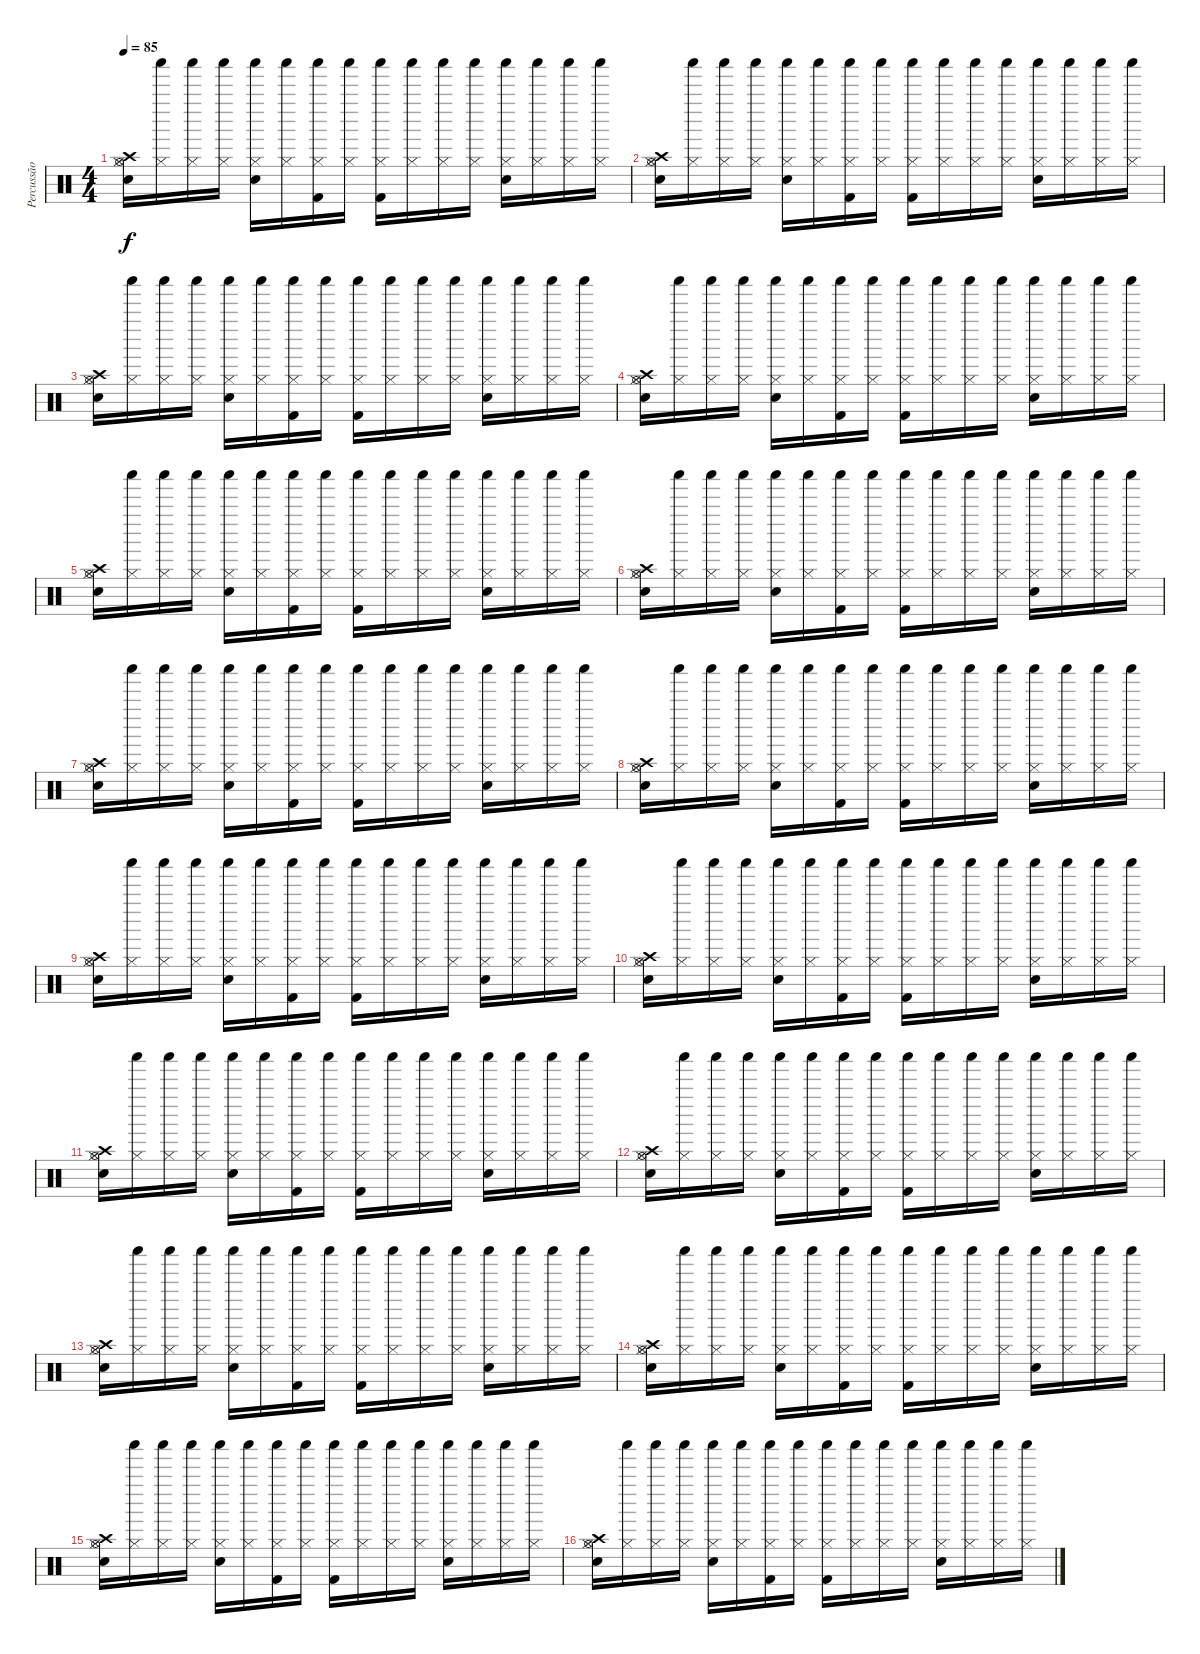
\track ("Percussão" "Percussão") {instrument percussion}
\staff {score}
\articulation defaults
\ts (4 4)
\tempo 85
\clef neutral
\ks c
("Hi-Hat (open)" "Crash high (hit)" "Hi-Hat (closed)" "Snare (hit) 2").16{dy f} ("Shaker (hit)" "Hi-Hat (closed)").16 ("Shaker (hit)" "Hi-Hat (closed)").16 ("Shaker (hit)" "Hi-Hat (closed)").16 ("Shaker (hit)" "Hi-Hat (closed)" "Snare (hit) 2").16 ("Shaker (hit)" "Hi-Hat (closed)").16 ("Shaker (hit)" "Hi-Hat (closed)" "Kick (hit) 2").16 ("Shaker (hit)" "Hi-Hat (closed)").16 ("Shaker (hit)" "Hi-Hat (closed)" "Kick (hit) 2").16 ("Shaker (hit)" "Hi-Hat (closed)").16 ("Shaker (hit)" "Hi-Hat (closed)").16 ("Shaker (hit)" "Hi-Hat (closed)").16 ("Shaker (hit)" "Hi-Hat (closed)" "Snare (hit) 2").16 ("Shaker (hit)" "Hi-Hat (closed)").16 ("Shaker (hit)" "Hi-Hat (closed)").16 ("Shaker (hit)" "Hi-Hat (closed)").16 |
("Hi-Hat (open)" "Crash high (hit)" "Hi-Hat (closed)" "Snare (hit) 2").16 ("Shaker (hit)" "Hi-Hat (closed)").16 ("Shaker (hit)" "Hi-Hat (closed)").16 ("Shaker (hit)" "Hi-Hat (closed)").16 ("Shaker (hit)" "Hi-Hat (closed)" "Snare (hit) 2").16 ("Shaker (hit)" "Hi-Hat (closed)").16 ("Shaker (hit)" "Hi-Hat (closed)" "Kick (hit) 2").16 ("Shaker (hit)" "Hi-Hat (closed)").16 ("Shaker (hit)" "Hi-Hat (closed)" "Kick (hit) 2").16 ("Shaker (hit)" "Hi-Hat (closed)").16 ("Shaker (hit)" "Hi-Hat (closed)").16 ("Shaker (hit)" "Hi-Hat (closed)").16 ("Shaker (hit)" "Hi-Hat (closed)" "Snare (hit) 2").16 ("Shaker (hit)" "Hi-Hat (closed)").16 ("Shaker (hit)" "Hi-Hat (closed)").16 ("Shaker (hit)" "Hi-Hat (closed)").16 |
("Hi-Hat (open)" "Crash high (hit)" "Hi-Hat (closed)" "Snare (hit) 2").16 ("Shaker (hit)" "Hi-Hat (closed)").16 ("Shaker (hit)" "Hi-Hat (closed)").16 ("Shaker (hit)" "Hi-Hat (closed)").16 ("Shaker (hit)" "Hi-Hat (closed)" "Snare (hit) 2").16 ("Shaker (hit)" "Hi-Hat (closed)").16 ("Shaker (hit)" "Hi-Hat (closed)" "Kick (hit) 2").16 ("Shaker (hit)" "Hi-Hat (closed)").16 ("Shaker (hit)" "Hi-Hat (closed)" "Kick (hit) 2").16 ("Shaker (hit)" "Hi-Hat (closed)").16 ("Shaker (hit)" "Hi-Hat (closed)").16 ("Shaker (hit)" "Hi-Hat (closed)").16 ("Shaker (hit)" "Hi-Hat (closed)" "Snare (hit) 2").16 ("Shaker (hit)" "Hi-Hat (closed)").16 ("Shaker (hit)" "Hi-Hat (closed)").16 ("Shaker (hit)" "Hi-Hat (closed)").16 |
("Hi-Hat (open)" "Crash high (hit)" "Hi-Hat (closed)" "Snare (hit) 2").16 ("Shaker (hit)" "Hi-Hat (closed)").16 ("Shaker (hit)" "Hi-Hat (closed)").16 ("Shaker (hit)" "Hi-Hat (closed)").16 ("Shaker (hit)" "Hi-Hat (closed)" "Snare (hit) 2").16 ("Shaker (hit)" "Hi-Hat (closed)").16 ("Shaker (hit)" "Hi-Hat (closed)" "Kick (hit) 2").16 ("Shaker (hit)" "Hi-Hat (closed)").16 ("Shaker (hit)" "Hi-Hat (closed)" "Kick (hit) 2").16 ("Shaker (hit)" "Hi-Hat (closed)").16 ("Shaker (hit)" "Hi-Hat (closed)").16 ("Shaker (hit)" "Hi-Hat (closed)").16 ("Shaker (hit)" "Hi-Hat (closed)" "Snare (hit) 2").16 ("Shaker (hit)" "Hi-Hat (closed)").16 ("Shaker (hit)" "Hi-Hat (closed)").16 ("Shaker (hit)" "Hi-Hat (closed)").16 |
("Hi-Hat (open)" "Crash high (hit)" "Hi-Hat (closed)" "Snare (hit) 2").16 ("Shaker (hit)" "Hi-Hat (closed)").16 ("Shaker (hit)" "Hi-Hat (closed)").16 ("Shaker (hit)" "Hi-Hat (closed)").16 ("Shaker (hit)" "Hi-Hat (closed)" "Snare (hit) 2").16 ("Shaker (hit)" "Hi-Hat (closed)").16 ("Shaker (hit)" "Hi-Hat (closed)" "Kick (hit) 2").16 ("Shaker (hit)" "Hi-Hat (closed)").16 ("Shaker (hit)" "Hi-Hat (closed)" "Kick (hit) 2").16 ("Shaker (hit)" "Hi-Hat (closed)").16 ("Shaker (hit)" "Hi-Hat (closed)").16 ("Shaker (hit)" "Hi-Hat (closed)").16 ("Shaker (hit)" "Hi-Hat (closed)" "Snare (hit) 2").16 ("Shaker (hit)" "Hi-Hat (closed)").16 ("Shaker (hit)" "Hi-Hat (closed)").16 ("Shaker (hit)" "Hi-Hat (closed)").16 |
("Hi-Hat (open)" "Crash high (hit)" "Hi-Hat (closed)" "Snare (hit) 2").16 ("Shaker (hit)" "Hi-Hat (closed)").16 ("Shaker (hit)" "Hi-Hat (closed)").16 ("Shaker (hit)" "Hi-Hat (closed)").16 ("Shaker (hit)" "Hi-Hat (closed)" "Snare (hit) 2").16 ("Shaker (hit)" "Hi-Hat (closed)").16 ("Shaker (hit)" "Hi-Hat (closed)" "Kick (hit) 2").16 ("Shaker (hit)" "Hi-Hat (closed)").16 ("Shaker (hit)" "Hi-Hat (closed)" "Kick (hit) 2").16 ("Shaker (hit)" "Hi-Hat (closed)").16 ("Shaker (hit)" "Hi-Hat (closed)").16 ("Shaker (hit)" "Hi-Hat (closed)").16 ("Shaker (hit)" "Hi-Hat (closed)" "Snare (hit) 2").16 ("Shaker (hit)" "Hi-Hat (closed)").16 ("Shaker (hit)" "Hi-Hat (closed)").16 ("Shaker (hit)" "Hi-Hat (closed)").16 |
("Hi-Hat (open)" "Crash high (hit)" "Hi-Hat (closed)" "Snare (hit) 2").16 ("Shaker (hit)" "Hi-Hat (closed)").16 ("Shaker (hit)" "Hi-Hat (closed)").16 ("Shaker (hit)" "Hi-Hat (closed)").16 ("Shaker (hit)" "Hi-Hat (closed)" "Snare (hit) 2").16 ("Shaker (hit)" "Hi-Hat (closed)").16 ("Shaker (hit)" "Hi-Hat (closed)" "Kick (hit) 2").16 ("Shaker (hit)" "Hi-Hat (closed)").16 ("Shaker (hit)" "Hi-Hat (closed)" "Kick (hit) 2").16 ("Shaker (hit)" "Hi-Hat (closed)").16 ("Shaker (hit)" "Hi-Hat (closed)").16 ("Shaker (hit)" "Hi-Hat (closed)").16 ("Shaker (hit)" "Hi-Hat (closed)" "Snare (hit) 2").16 ("Shaker (hit)" "Hi-Hat (closed)").16 ("Shaker (hit)" "Hi-Hat (closed)").16 ("Shaker (hit)" "Hi-Hat (closed)").16 |
("Hi-Hat (open)" "Crash high (hit)" "Hi-Hat (closed)" "Snare (hit) 2").16 ("Shaker (hit)" "Hi-Hat (closed)").16 ("Shaker (hit)" "Hi-Hat (closed)").16 ("Shaker (hit)" "Hi-Hat (closed)").16 ("Shaker (hit)" "Hi-Hat (closed)" "Snare (hit) 2").16 ("Shaker (hit)" "Hi-Hat (closed)").16 ("Shaker (hit)" "Hi-Hat (closed)" "Kick (hit) 2").16 ("Shaker (hit)" "Hi-Hat (closed)").16 ("Shaker (hit)" "Hi-Hat (closed)" "Kick (hit) 2").16 ("Shaker (hit)" "Hi-Hat (closed)").16 ("Shaker (hit)" "Hi-Hat (closed)").16 ("Shaker (hit)" "Hi-Hat (closed)").16 ("Shaker (hit)" "Hi-Hat (closed)" "Snare (hit) 2").16 ("Shaker (hit)" "Hi-Hat (closed)").16 ("Shaker (hit)" "Hi-Hat (closed)").16 ("Shaker (hit)" "Hi-Hat (closed)").16 |
("Hi-Hat (open)" "Crash high (hit)" "Hi-Hat (closed)" "Snare (hit) 2").16 ("Shaker (hit)" "Hi-Hat (closed)").16 ("Shaker (hit)" "Hi-Hat (closed)").16 ("Shaker (hit)" "Hi-Hat (closed)").16 ("Shaker (hit)" "Hi-Hat (closed)" "Snare (hit) 2").16 ("Shaker (hit)" "Hi-Hat (closed)").16 ("Shaker (hit)" "Hi-Hat (closed)" "Kick (hit) 2").16 ("Shaker (hit)" "Hi-Hat (closed)").16 ("Shaker (hit)" "Hi-Hat (closed)" "Kick (hit) 2").16 ("Shaker (hit)" "Hi-Hat (closed)").16 ("Shaker (hit)" "Hi-Hat (closed)").16 ("Shaker (hit)" "Hi-Hat (closed)").16 ("Shaker (hit)" "Hi-Hat (closed)" "Snare (hit) 2").16 ("Shaker (hit)" "Hi-Hat (closed)").16 ("Shaker (hit)" "Hi-Hat (closed)").16 ("Shaker (hit)" "Hi-Hat (closed)").16 |
("Hi-Hat (open)" "Crash high (hit)" "Hi-Hat (closed)" "Snare (hit) 2").16 ("Shaker (hit)" "Hi-Hat (closed)").16 ("Shaker (hit)" "Hi-Hat (closed)").16 ("Shaker (hit)" "Hi-Hat (closed)").16 ("Shaker (hit)" "Hi-Hat (closed)" "Snare (hit) 2").16 ("Shaker (hit)" "Hi-Hat (closed)").16 ("Shaker (hit)" "Hi-Hat (closed)" "Kick (hit) 2").16 ("Shaker (hit)" "Hi-Hat (closed)").16 ("Shaker (hit)" "Hi-Hat (closed)" "Kick (hit) 2").16 ("Shaker (hit)" "Hi-Hat (closed)").16 ("Shaker (hit)" "Hi-Hat (closed)").16 ("Shaker (hit)" "Hi-Hat (closed)").16 ("Shaker (hit)" "Hi-Hat (closed)" "Snare (hit) 2").16 ("Shaker (hit)" "Hi-Hat (closed)").16 ("Shaker (hit)" "Hi-Hat (closed)").16 ("Shaker (hit)" "Hi-Hat (closed)").16 |
("Hi-Hat (open)" "Crash high (hit)" "Hi-Hat (closed)" "Snare (hit) 2").16 ("Shaker (hit)" "Hi-Hat (closed)").16 ("Shaker (hit)" "Hi-Hat (closed)").16 ("Shaker (hit)" "Hi-Hat (closed)").16 ("Shaker (hit)" "Hi-Hat (closed)" "Snare (hit) 2").16 ("Shaker (hit)" "Hi-Hat (closed)").16 ("Shaker (hit)" "Hi-Hat (closed)" "Kick (hit) 2").16 ("Shaker (hit)" "Hi-Hat (closed)").16 ("Shaker (hit)" "Hi-Hat (closed)" "Kick (hit) 2").16 ("Shaker (hit)" "Hi-Hat (closed)").16 ("Shaker (hit)" "Hi-Hat (closed)").16 ("Shaker (hit)" "Hi-Hat (closed)").16 ("Shaker (hit)" "Hi-Hat (closed)" "Snare (hit) 2").16 ("Shaker (hit)" "Hi-Hat (closed)").16 ("Shaker (hit)" "Hi-Hat (closed)").16 ("Shaker (hit)" "Hi-Hat (closed)").16 |
("Hi-Hat (open)" "Crash high (hit)" "Hi-Hat (closed)" "Snare (hit) 2").16 ("Shaker (hit)" "Hi-Hat (closed)").16 ("Shaker (hit)" "Hi-Hat (closed)").16 ("Shaker (hit)" "Hi-Hat (closed)").16 ("Shaker (hit)" "Hi-Hat (closed)" "Snare (hit) 2").16 ("Shaker (hit)" "Hi-Hat (closed)").16 ("Shaker (hit)" "Hi-Hat (closed)" "Kick (hit) 2").16 ("Shaker (hit)" "Hi-Hat (closed)").16 ("Shaker (hit)" "Hi-Hat (closed)" "Kick (hit) 2").16 ("Shaker (hit)" "Hi-Hat (closed)").16 ("Shaker (hit)" "Hi-Hat (closed)").16 ("Shaker (hit)" "Hi-Hat (closed)").16 ("Shaker (hit)" "Hi-Hat (closed)" "Snare (hit) 2").16 ("Shaker (hit)" "Hi-Hat (closed)").16 ("Shaker (hit)" "Hi-Hat (closed)").16 ("Shaker (hit)" "Hi-Hat (closed)").16 |
("Hi-Hat (open)" "Crash high (hit)" "Hi-Hat (closed)" "Snare (hit) 2").16 ("Shaker (hit)" "Hi-Hat (closed)").16 ("Shaker (hit)" "Hi-Hat (closed)").16 ("Shaker (hit)" "Hi-Hat (closed)").16 ("Shaker (hit)" "Hi-Hat (closed)" "Snare (hit) 2").16 ("Shaker (hit)" "Hi-Hat (closed)").16 ("Shaker (hit)" "Hi-Hat (closed)" "Kick (hit) 2").16 ("Shaker (hit)" "Hi-Hat (closed)").16 ("Shaker (hit)" "Hi-Hat (closed)" "Kick (hit) 2").16 ("Shaker (hit)" "Hi-Hat (closed)").16 ("Shaker (hit)" "Hi-Hat (closed)").16 ("Shaker (hit)" "Hi-Hat (closed)").16 ("Shaker (hit)" "Hi-Hat (closed)" "Snare (hit) 2").16 ("Shaker (hit)" "Hi-Hat (closed)").16 ("Shaker (hit)" "Hi-Hat (closed)").16 ("Shaker (hit)" "Hi-Hat (closed)").16 |
("Hi-Hat (open)" "Crash high (hit)" "Hi-Hat (closed)" "Snare (hit) 2").16 ("Shaker (hit)" "Hi-Hat (closed)").16 ("Shaker (hit)" "Hi-Hat (closed)").16 ("Shaker (hit)" "Hi-Hat (closed)").16 ("Shaker (hit)" "Hi-Hat (closed)" "Snare (hit) 2").16 ("Shaker (hit)" "Hi-Hat (closed)").16 ("Shaker (hit)" "Hi-Hat (closed)" "Kick (hit) 2").16 ("Shaker (hit)" "Hi-Hat (closed)").16 ("Shaker (hit)" "Hi-Hat (closed)" "Kick (hit) 2").16 ("Shaker (hit)" "Hi-Hat (closed)").16 ("Shaker (hit)" "Hi-Hat (closed)").16 ("Shaker (hit)" "Hi-Hat (closed)").16 ("Shaker (hit)" "Hi-Hat (closed)" "Snare (hit) 2").16 ("Shaker (hit)" "Hi-Hat (closed)").16 ("Shaker (hit)" "Hi-Hat (closed)").16 ("Shaker (hit)" "Hi-Hat (closed)").16 |
("Hi-Hat (open)" "Crash high (hit)" "Hi-Hat (closed)" "Snare (hit) 2").16 ("Shaker (hit)" "Hi-Hat (closed)").16 ("Shaker (hit)" "Hi-Hat (closed)").16 ("Shaker (hit)" "Hi-Hat (closed)").16 ("Shaker (hit)" "Hi-Hat (closed)" "Snare (hit) 2").16 ("Shaker (hit)" "Hi-Hat (closed)").16 ("Shaker (hit)" "Hi-Hat (closed)" "Kick (hit) 2").16 ("Shaker (hit)" "Hi-Hat (closed)").16 ("Shaker (hit)" "Hi-Hat (closed)" "Kick (hit) 2").16 ("Shaker (hit)" "Hi-Hat (closed)").16 ("Shaker (hit)" "Hi-Hat (closed)").16 ("Shaker (hit)" "Hi-Hat (closed)").16 ("Shaker (hit)" "Hi-Hat (closed)" "Snare (hit) 2").16 ("Shaker (hit)" "Hi-Hat (closed)").16 ("Shaker (hit)" "Hi-Hat (closed)").16 ("Shaker (hit)" "Hi-Hat (closed)").16 |
("Hi-Hat (open)" "Crash high (hit)" "Hi-Hat (closed)" "Snare (hit) 2").16 ("Shaker (hit)" "Hi-Hat (closed)").16 ("Shaker (hit)" "Hi-Hat (closed)").16 ("Shaker (hit)" "Hi-Hat (closed)").16 ("Shaker (hit)" "Hi-Hat (closed)" "Snare (hit) 2").16 ("Shaker (hit)" "Hi-Hat (closed)").16 ("Shaker (hit)" "Hi-Hat (closed)" "Kick (hit) 2").16 ("Shaker (hit)" "Hi-Hat (closed)").16 ("Shaker (hit)" "Hi-Hat (closed)" "Kick (hit) 2").16 ("Shaker (hit)" "Hi-Hat (closed)").16 ("Shaker (hit)" "Hi-Hat (closed)").16 ("Shaker (hit)" "Hi-Hat (closed)").16 ("Shaker (hit)" "Hi-Hat (closed)" "Snare (hit) 2").16 ("Shaker (hit)" "Hi-Hat (closed)").16 ("Shaker (hit)" "Hi-Hat (closed)").16 ("Shaker (hit)" "Hi-Hat (closed)").16
